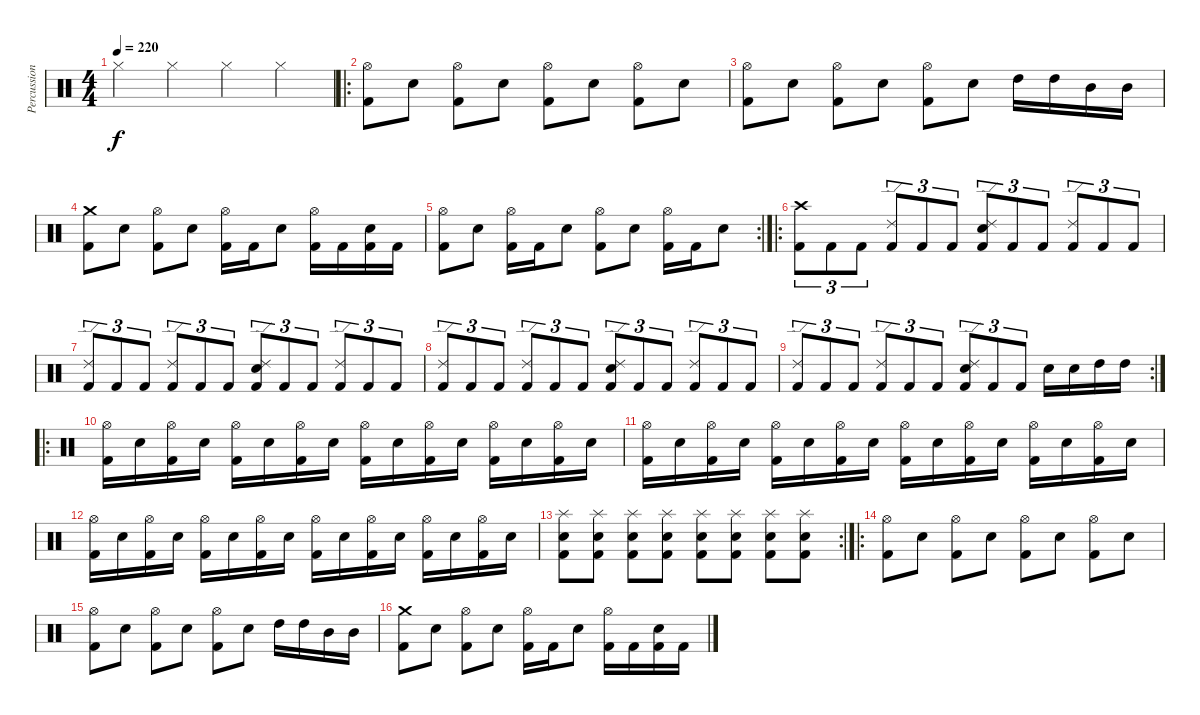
\track ("Percussions" "Percussion") {instrument percussion}
\staff {score}
\articulation defaults
\ts (4 4)
\tempo 220
\clef neutral
\ks c "Hi-Hat (closed)".4{dy f} "Hi-Hat (closed)".4 "Hi-Hat (closed)".4 "Hi-Hat (closed)".4
|
\ro
("Hi-Hat (open)" "Kick (hit) 2").8 "Snare (hit) 2".8 ("Hi-Hat (open)" "Kick (hit) 2").8 "Snare (hit) 2".8 ("Hi-Hat (open)" "Kick (hit) 2").8 "Snare (hit) 2".8 ("Hi-Hat (open)" "Kick (hit) 2").8 "Snare (hit) 2".8 |
("Hi-Hat (open)" "Kick (hit) 2").8 "Snare (hit) 2".8 ("Hi-Hat (open)" "Kick (hit) 2").8 "Snare (hit) 2".8 ("Hi-Hat (open)" "Kick (hit) 2").8 "Snare (hit) 2".8 "High Tom (hit)".16 "High Tom (hit)".16 "Mid Tom (hit)".16 "Mid Tom (hit)".16 |
("Crash medium (hit)" "Kick (hit) 2").8 "Snare (hit) 2".8 ("Hi-Hat (open)" "Kick (hit) 2").8 "Snare (hit) 2".8 ("Hi-Hat (open)" "Kick (hit) 2").16 "Kick (hit) 2".16 "Snare (hit) 2".8 ("Hi-Hat (open)" "Kick (hit) 2").16 "Kick (hit) 2".16 ("Snare (hit) 2" "Kick (hit) 2").16 "Kick (hit) 2".16 |
\rc 2
("Hi-Hat (open)" "Kick (hit) 2").8 "Snare (hit) 2".8 ("Hi-Hat (open)" "Kick (hit) 2").16 "Kick (hit) 2".16 "Snare (hit) 2".8 ("Hi-Hat (open)" "Kick (hit) 2").8 "Snare (hit) 2".8 ("Hi-Hat (open)" "Kick (hit) 2").16 "Kick (hit) 2".16 "Snare (hit) 2".8 |
\ro
("Crash high (hit)" "Kick (hit) 2").8{tu (3 2)} "Kick (hit) 2".8{tu (3 2)} "Kick (hit) 2".8{tu (3 2)} ("Ride (edge) 2" "Kick (hit) 2").8{tu (3 2)} "Kick (hit) 2".8{tu (3 2)} "Kick (hit) 2".8{tu (3 2)} ("Ride (edge) 2" "Snare (hit) 2" "Kick (hit) 2").8{tu (3 2)} "Kick (hit) 2".8{tu (3 2)} "Kick (hit) 2".8{tu (3 2)} ("Ride (edge) 2" "Kick (hit) 2").8{tu (3 2)} "Kick (hit) 2".8{tu (3 2)} "Kick (hit) 2".8{tu (3 2)} |
("Ride (edge) 2" "Kick (hit) 2").8{tu (3 2)} "Kick (hit) 2".8{tu (3 2)} "Kick (hit) 2".8{tu (3 2)} ("Ride (edge) 2" "Kick (hit) 2").8{tu (3 2)} "Kick (hit) 2".8{tu (3 2)} "Kick (hit) 2".8{tu (3 2)} ("Ride (edge) 2" "Snare (hit) 2" "Kick (hit) 2").8{tu (3 2)} "Kick (hit) 2".8{tu (3 2)} "Kick (hit) 2".8{tu (3 2)} ("Ride (edge) 2" "Kick (hit) 2").8{tu (3 2)} "Kick (hit) 2".8{tu (3 2)} "Kick (hit) 2".8{tu (3 2)} |
("Ride (edge) 2" "Kick (hit) 2").8{tu (3 2)} "Kick (hit) 2".8{tu (3 2)} "Kick (hit) 2".8{tu (3 2)} ("Ride (edge) 2" "Kick (hit) 2").8{tu (3 2)} "Kick (hit) 2".8{tu (3 2)} "Kick (hit) 2".8{tu (3 2)} ("Ride (edge) 2" "Snare (hit) 2" "Kick (hit) 2").8{tu (3 2)} "Kick (hit) 2".8{tu (3 2)} "Kick (hit) 2".8{tu (3 2)} ("Ride (edge) 2" "Kick (hit) 2").8{tu (3 2)} "Kick (hit) 2".8{tu (3 2)} "Kick (hit) 2".8{tu (3 2)} |
\rc 2
("Ride (edge) 2" "Kick (hit) 2").8{tu (3 2)} "Kick (hit) 2".8{tu (3 2)} "Kick (hit) 2".8{tu (3 2)} ("Ride (edge) 2" "Kick (hit) 2").8{tu (3 2)} "Kick (hit) 2".8{tu (3 2)} "Kick (hit) 2".8{tu (3 2)} ("Ride (edge) 2" "Snare (hit) 2" "Kick (hit) 2").8{tu (3 2)} "Kick (hit) 2".8{tu (3 2)} "Kick (hit) 2".8{tu (3 2)} "Snare (hit) 2".16 "Snare (hit) 2".16 "High Tom (hit)".16 "High Tom (hit)".16 |
\ro
("Hi-Hat (open)" "Kick (hit) 2").16 "Snare (hit) 2".16 ("Hi-Hat (open)" "Kick (hit) 2").16 "Snare (hit) 2".16 ("Hi-Hat (open)" "Kick (hit) 2").16 "Snare (hit) 2".16 ("Hi-Hat (open)" "Kick (hit) 2").16 "Snare (hit) 2".16 ("Hi-Hat (open)" "Kick (hit) 2").16 "Snare (hit) 2".16 ("Hi-Hat (open)" "Kick (hit) 2").16 "Snare (hit) 2".16 ("Hi-Hat (open)" "Kick (hit) 2").16 "Snare (hit) 2".16 ("Hi-Hat (open)" "Kick (hit) 2").16 "Snare (hit) 2".16 |
("Hi-Hat (open)" "Kick (hit) 2").16 "Snare (hit) 2".16 ("Hi-Hat (open)" "Kick (hit) 2").16 "Snare (hit) 2".16 ("Hi-Hat (open)" "Kick (hit) 2").16 "Snare (hit) 2".16 ("Hi-Hat (open)" "Kick (hit) 2").16 "Snare (hit) 2".16 ("Hi-Hat (open)" "Kick (hit) 2").16 "Snare (hit) 2".16 ("Hi-Hat (open)" "Kick (hit) 2").16 "Snare (hit) 2".16 ("Hi-Hat (open)" "Kick (hit) 2").16 "Snare (hit) 2".16 ("Hi-Hat (open)" "Kick (hit) 2").16 "Snare (hit) 2".16 |
("Hi-Hat (open)" "Kick (hit) 2").16 "Snare (hit) 2".16 ("Hi-Hat (open)" "Kick (hit) 2").16 "Snare (hit) 2".16 ("Hi-Hat (open)" "Kick (hit) 2").16 "Snare (hit) 2".16 ("Hi-Hat (open)" "Kick (hit) 2").16 "Snare (hit) 2".16 ("Hi-Hat (open)" "Kick (hit) 2").16 "Snare (hit) 2".16 ("Hi-Hat (open)" "Kick (hit) 2").16 "Snare (hit) 2".16 ("Hi-Hat (open)" "Kick (hit) 2").16 "Snare (hit) 2".16 ("Hi-Hat (open)" "Kick (hit) 2").16 "Snare (hit) 2".16 |
\rc 2
("Splash (hit)" "Snare (hit) 2" "Kick (hit) 2").8 ("Splash (hit)" "Snare (hit) 2" "Kick (hit) 2").8 ("Splash (hit)" "Snare (hit) 2" "Kick (hit) 2").8 ("Splash (hit)" "Snare (hit) 2" "Kick (hit) 2").8 ("Splash (hit)" "Snare (hit) 2" "Kick (hit) 2").8 ("Splash (hit)" "Snare (hit) 2" "Kick (hit) 2").8 ("Splash (hit)" "Snare (hit) 2" "Kick (hit) 2").8 ("Splash (hit)" "Snare (hit) 2" "Kick (hit) 2").8 |
\ro
("Hi-Hat (open)" "Kick (hit) 2").8 "Snare (hit) 2".8 ("Hi-Hat (open)" "Kick (hit) 2").8 "Snare (hit) 2".8 ("Hi-Hat (open)" "Kick (hit) 2").8 "Snare (hit) 2".8 ("Hi-Hat (open)" "Kick (hit) 2").8 "Snare (hit) 2".8 |
("Hi-Hat (open)" "Kick (hit) 2").8 "Snare (hit) 2".8 ("Hi-Hat (open)" "Kick (hit) 2").8 "Snare (hit) 2".8 ("Hi-Hat (open)" "Kick (hit) 2").8 "Snare (hit) 2".8 "High Tom (hit)".16 "High Tom (hit)".16 "Mid Tom (hit)".16 "Mid Tom (hit)".16 |
("Crash medium (hit)" "Kick (hit) 2").8 "Snare (hit) 2".8 ("Hi-Hat (open)" "Kick (hit) 2").8 "Snare (hit) 2".8 ("Hi-Hat (open)" "Kick (hit) 2").16 "Kick (hit) 2".16 "Snare (hit) 2".8 ("Hi-Hat (open)" "Kick (hit) 2").16 "Kick (hit) 2".16 ("Snare (hit) 2" "Kick (hit) 2").16 "Kick (hit) 2".16
